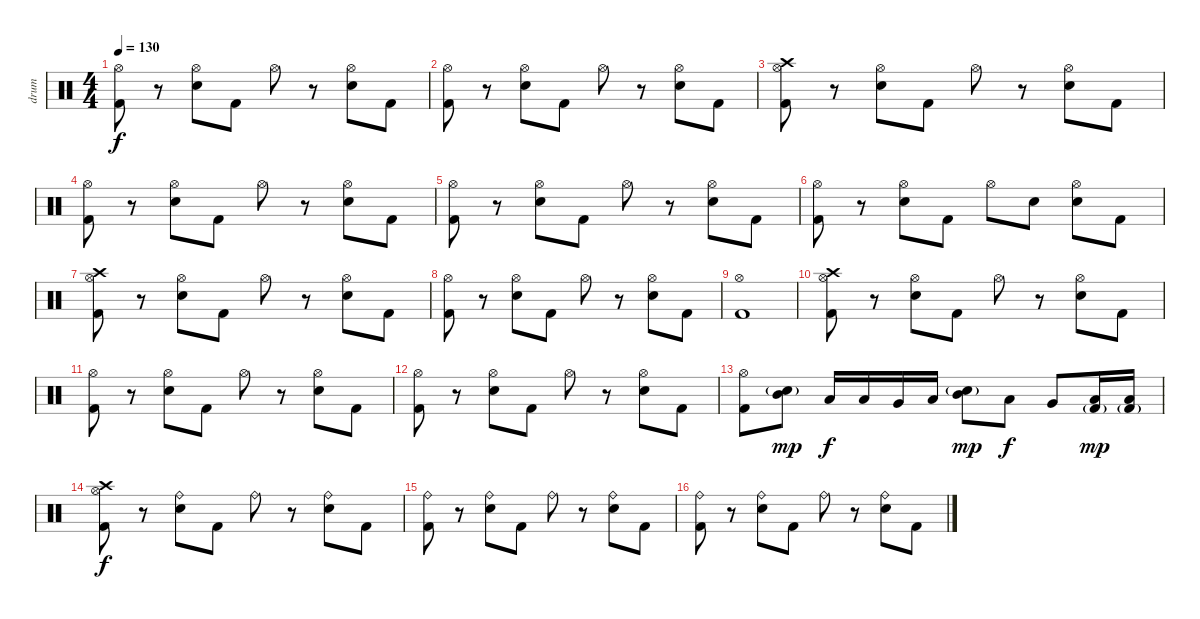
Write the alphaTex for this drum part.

\track ("drum" "drum") {instrument percussion}
\staff {score}
\articulation defaults
\ts (4 4)
\tempo 130
\clef neutral
\ks c
("Hi-Hat (open)" "Kick (hit) 2").8{dy f} r.8 ("Hi-Hat (open)" "Electric Snare (hit)").8 "Kick (hit) 2".8 "Hi-Hat (open)".8 r.8 ("Hi-Hat (open)" "Electric Snare (hit)").8 "Kick (hit) 2".8 |
("Hi-Hat (open)" "Kick (hit) 2").8 r.8 ("Hi-Hat (open)" "Electric Snare (hit)").8 "Kick (hit) 2".8 "Hi-Hat (open)".8 r.8 ("Hi-Hat (open)" "Electric Snare (hit)").8 "Kick (hit) 2".8 |
("Crash high (hit)" "Hi-Hat (open)" "Kick (hit) 2").8 r.8 ("Hi-Hat (open)" "Electric Snare (hit)").8 "Kick (hit) 2".8 "Hi-Hat (open)".8 r.8 ("Hi-Hat (open)" "Electric Snare (hit)").8 "Kick (hit) 2".8 |
("Hi-Hat (open)" "Kick (hit) 2").8 r.8 ("Hi-Hat (open)" "Electric Snare (hit)").8 "Kick (hit) 2".8 "Hi-Hat (open)".8 r.8 ("Hi-Hat (open)" "Electric Snare (hit)").8 "Kick (hit) 2".8 |
("Hi-Hat (open)" "Kick (hit) 2").8 r.8 ("Hi-Hat (open)" "Electric Snare (hit)").8 "Kick (hit) 2".8 "Hi-Hat (open)".8 r.8 ("Hi-Hat (open)" "Electric Snare (hit)").8 "Kick (hit) 2".8 |
("Hi-Hat (open)" "Kick (hit) 2").8 r.8 ("Hi-Hat (open)" "Electric Snare (hit)").8 "Kick (hit) 2".8 "Hi-Hat (open)".8 "Electric Snare (hit)".8 ("Hi-Hat (open)" "Electric Snare (hit)").8 "Kick (hit) 2".8 |
("Crash high (hit)" "Hi-Hat (open)" "Kick (hit) 2").8 r.8 ("Hi-Hat (open)" "Electric Snare (hit)").8 "Kick (hit) 2".8 "Hi-Hat (open)".8 r.8 ("Hi-Hat (open)" "Electric Snare (hit)").8 "Kick (hit) 2".8 |
("Hi-Hat (open)" "Kick (hit) 2").8 r.8 ("Hi-Hat (open)" "Electric Snare (hit)").8 "Kick (hit) 2".8 "Hi-Hat (open)".8 r.8 ("Hi-Hat (open)" "Electric Snare (hit)").8 "Kick (hit) 2".8 |
("Hi-Hat (open)" "Kick (hit) 2").1 |
("Crash high (hit)" "Hi-Hat (open)" "Kick (hit) 2").8 r.8 ("Hi-Hat (open)" "Electric Snare (hit)").8 "Kick (hit) 2".8 "Hi-Hat (open)".8 r.8 ("Hi-Hat (open)" "Electric Snare (hit)").8 "Kick (hit) 2".8 |
("Hi-Hat (open)" "Kick (hit) 2").8 r.8 ("Hi-Hat (open)" "Electric Snare (hit)").8 "Kick (hit) 2".8 "Hi-Hat (open)".8 r.8 ("Hi-Hat (open)" "Electric Snare (hit)").8 "Kick (hit) 2".8 |
("Hi-Hat (open)" "Kick (hit) 2").8 r.8 ("Hi-Hat (open)" "Electric Snare (hit)").8 "Kick (hit) 2".8 "Hi-Hat (open)".8 r.8 ("Hi-Hat (open)" "Electric Snare (hit)").8 "Kick (hit) 2".8 |
("Hi-Hat (open)" "Kick (hit) 2").8 ("Mid Tom (hit)" "Electric Snare (hit)"{g}).8{dy mp} "Low Tom (hit)".16{dy f} "Low Tom (hit)".16 "Very Low Tom (hit)".16 "Low Floor Tom (hit)".16 ("Mid Tom (hit)" "Electric Snare (hit)"{g}).8{dy mp} "Low Tom (hit)".8{dy f} "Very Low Tom (hit)".8 ("Low Floor Tom (hit)" "Kick (hit) 2"{g}).16{dy mp} ("Low Floor Tom (hit)" "Kick (hit) 2"{g}).16 |
("Crash high (hit)" "Hi-Hat (open)" "Kick (hit) 2").8{dy f} r.8 ("Ride (bell)" "Electric Snare (hit)").8 "Kick (hit) 2".8 "Ride (bell)".8 r.8 ("Ride (bell)" "Electric Snare (hit)").8 "Kick (hit) 2".8 |
("Ride (bell)" "Kick (hit) 2").8 r.8 ("Ride (bell)" "Electric Snare (hit)").8 "Kick (hit) 2".8 "Ride (bell)".8 r.8 ("Ride (bell)" "Electric Snare (hit)").8 "Kick (hit) 2".8 |
("Ride (bell)" "Kick (hit) 2").8 r.8 ("Ride (bell)" "Electric Snare (hit)").8 "Kick (hit) 2".8 "Ride (bell)".8 r.8 ("Ride (bell)" "Electric Snare (hit)").8 "Kick (hit) 2".8
